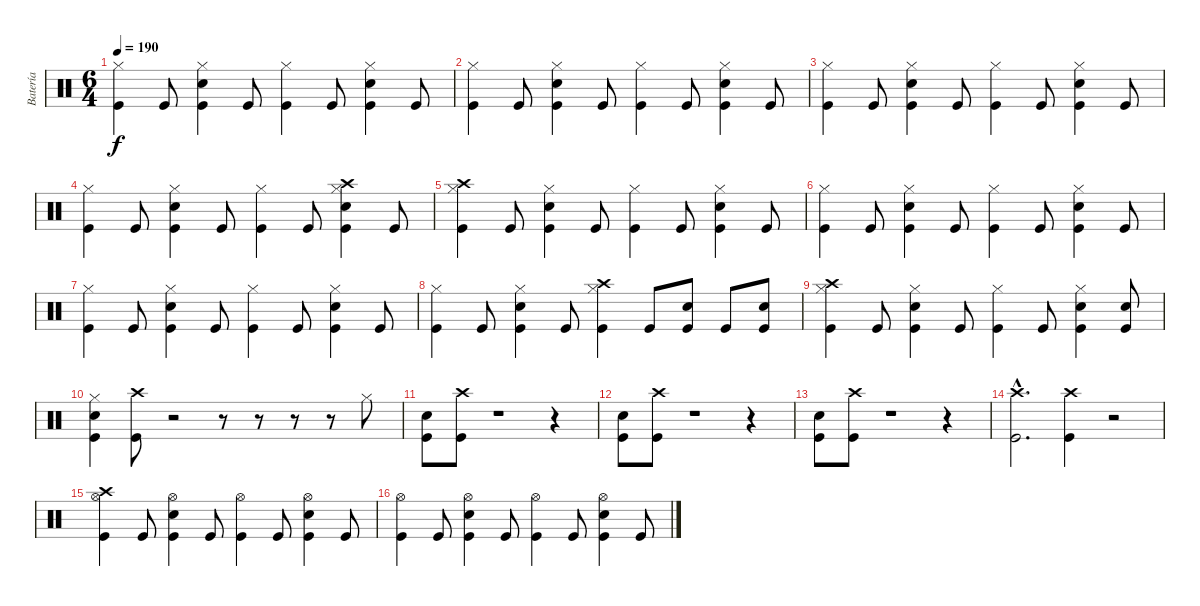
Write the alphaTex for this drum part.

\track ("Batería" "Batería") {instrument percussion}
\staff {score}
\articulation defaults
\ts (6 4)
\tempo 190
\clef neutral
\ks c
("Hi-Hat (closed)" "Kick (hit)").4{dy f} "Kick (hit)".8 ("Kick (hit)" "Hi-Hat (closed)" "Snare (hit) 2").4 "Kick (hit)".8 ("Hi-Hat (closed)" "Kick (hit)").4 "Kick (hit)".8 ("Kick (hit)" "Hi-Hat (closed)" "Snare (hit) 2").4 "Kick (hit)".8 |
("Hi-Hat (closed)" "Kick (hit)").4 "Kick (hit)".8 ("Kick (hit)" "Hi-Hat (closed)" "Snare (hit) 2").4 "Kick (hit)".8 ("Hi-Hat (closed)" "Kick (hit)").4 "Kick (hit)".8 ("Kick (hit)" "Hi-Hat (closed)" "Snare (hit) 2").4 "Kick (hit)".8 |
("Hi-Hat (closed)" "Kick (hit)").4 "Kick (hit)".8 ("Kick (hit)" "Hi-Hat (closed)" "Snare (hit) 2").4 "Kick (hit)".8 ("Hi-Hat (closed)" "Kick (hit)").4 "Kick (hit)".8 ("Kick (hit)" "Hi-Hat (closed)" "Snare (hit) 2").4 "Kick (hit)".8 |
("Hi-Hat (closed)" "Kick (hit)").4 "Kick (hit)".8 ("Kick (hit)" "Hi-Hat (closed)" "Snare (hit) 2").4 "Kick (hit)".8 ("Hi-Hat (closed)" "Kick (hit)").4 "Kick (hit)".8 ("Crash high (hit)" "Kick (hit)" "Hi-Hat (closed)" "Snare (hit) 2").4 "Kick (hit)".8 |
("Crash high (hit)" "Hi-Hat (closed)" "Kick (hit)").4 "Kick (hit)".8 ("Kick (hit)" "Hi-Hat (closed)" "Snare (hit) 2").4 "Kick (hit)".8 ("Hi-Hat (closed)" "Kick (hit)").4 "Kick (hit)".8 ("Kick (hit)" "Hi-Hat (closed)" "Snare (hit) 2").4 "Kick (hit)".8 |
("Hi-Hat (closed)" "Kick (hit)").4 "Kick (hit)".8 ("Kick (hit)" "Hi-Hat (closed)" "Snare (hit) 2").4 "Kick (hit)".8 ("Hi-Hat (closed)" "Kick (hit)").4 "Kick (hit)".8 ("Kick (hit)" "Hi-Hat (closed)" "Snare (hit) 2").4 "Kick (hit)".8 |
("Hi-Hat (closed)" "Kick (hit)").4 "Kick (hit)".8 ("Kick (hit)" "Hi-Hat (closed)" "Snare (hit) 2").4 "Kick (hit)".8 ("Hi-Hat (closed)" "Kick (hit)").4 "Kick (hit)".8 ("Kick (hit)" "Hi-Hat (closed)" "Snare (hit) 2").4 "Kick (hit)".8 |
("Hi-Hat (closed)" "Kick (hit)").4 "Kick (hit)".8 ("Kick (hit)" "Hi-Hat (closed)" "Snare (hit) 2").4 "Kick (hit)".8 ("Crash high (hit)" "Hi-Hat (closed)" "Kick (hit)").4 "Kick (hit)".8 ("Kick (hit)" "Snare (hit) 2").8 "Kick (hit)".8 ("Kick (hit)" "Snare (hit) 2").8 |
("Crash high (hit)" "Hi-Hat (closed)" "Kick (hit)").4 "Kick (hit)".8 ("Kick (hit)" "Hi-Hat (closed)" "Snare (hit) 2").4 "Kick (hit)".8 ("Hi-Hat (closed)" "Kick (hit)").4 "Kick (hit)".8 ("Kick (hit)" "Hi-Hat (closed)" "Snare (hit) 2").4 ("Snare (hit) 2" "Kick (hit)").8 |
("Snare (hit) 2" "Hi-Hat (closed)" "Kick (hit)").4 ("Crash high (hit)" "Kick (hit)").8 r.2 r.8 r.8 r.8 r.8 "Hi-Hat (closed)".8 |
("Kick (hit)" "Snare (hit) 2").8 ("Crash high (hit)" "Kick (hit)").8 r.1 r.4 |
("Kick (hit)" "Snare (hit) 2").8 ("Crash high (hit)" "Kick (hit)").8 r.1 r.4 |
("Kick (hit)" "Snare (hit) 2").8 ("Crash high (hit)" "Kick (hit)").8 r.1 r.4 |
("Crash high (hit)"{hac} "Kick (hit)"{hac}).2{d} ("Crash high (hit)" "Kick (hit)").4 r.2 |
("Crash high (hit)" "Hi-Hat (open)" "Kick (hit)").4 "Kick (hit)".8 ("Kick (hit)" "Hi-Hat (open)" "Snare (hit) 2").4 "Kick (hit)".8 ("Hi-Hat (open)" "Kick (hit)").4 "Kick (hit)".8 ("Kick (hit)" "Hi-Hat (open)" "Snare (hit) 2").4 "Kick (hit)".8 |
("Hi-Hat (open)" "Kick (hit)").4 "Kick (hit)".8 ("Kick (hit)" "Hi-Hat (open)" "Snare (hit) 2").4 "Kick (hit)".8 ("Hi-Hat (open)" "Kick (hit)").4 "Kick (hit)".8 ("Kick (hit)" "Hi-Hat (open)" "Snare (hit) 2").4 "Kick (hit)".8
